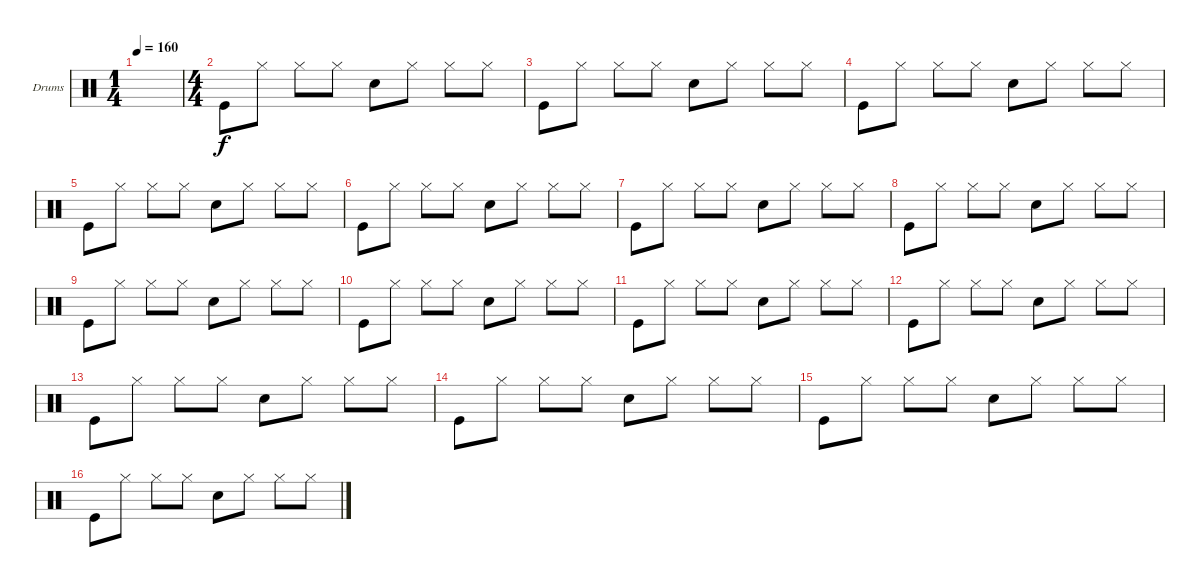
\defaultSystemsLayout 4
\bracketExtendMode nobrackets
\firstSystemTrackNameOrientation horizontal
\otherSystemsTrackNameOrientation horizontal
\track ("Drumkit" "Drums") {instrument percussion}
\staff {score}
\articulation defaults
\ts (1 4)
\tempo 160
\clef neutral
\ks c
|
\ts (4 4)
"Kick (hit)".8 "Hi-Hat (closed)".8 "Hi-Hat (closed)".8 "Hi-Hat (closed)".8 "Snare (hit) 2".8 "Hi-Hat (closed)".8 "Hi-Hat (closed)".8 "Hi-Hat (closed)".8 |
"Kick (hit)".8 "Hi-Hat (closed)".8 "Hi-Hat (closed)".8 "Hi-Hat (closed)".8 "Snare (hit) 2".8 "Hi-Hat (closed)".8 "Hi-Hat (closed)".8 "Hi-Hat (closed)".8 |
"Kick (hit)".8 "Hi-Hat (closed)".8 "Hi-Hat (closed)".8 "Hi-Hat (closed)".8 "Snare (hit) 2".8 "Hi-Hat (closed)".8 "Hi-Hat (closed)".8 "Hi-Hat (closed)".8 |
"Kick (hit)".8 "Hi-Hat (closed)".8 "Hi-Hat (closed)".8 "Hi-Hat (closed)".8 "Snare (hit) 2".8 "Hi-Hat (closed)".8 "Hi-Hat (closed)".8 "Hi-Hat (closed)".8 |
"Kick (hit)".8 "Hi-Hat (closed)".8 "Hi-Hat (closed)".8 "Hi-Hat (closed)".8 "Snare (hit) 2".8 "Hi-Hat (closed)".8 "Hi-Hat (closed)".8 "Hi-Hat (closed)".8 |
"Kick (hit)".8 "Hi-Hat (closed)".8 "Hi-Hat (closed)".8 "Hi-Hat (closed)".8 "Snare (hit) 2".8 "Hi-Hat (closed)".8 "Hi-Hat (closed)".8 "Hi-Hat (closed)".8 |
"Kick (hit)".8 "Hi-Hat (closed)".8 "Hi-Hat (closed)".8 "Hi-Hat (closed)".8 "Snare (hit) 2".8 "Hi-Hat (closed)".8 "Hi-Hat (closed)".8 "Hi-Hat (closed)".8 |
"Kick (hit)".8 "Hi-Hat (closed)".8 "Hi-Hat (closed)".8 "Hi-Hat (closed)".8 "Snare (hit) 2".8 "Hi-Hat (closed)".8 "Hi-Hat (closed)".8 "Hi-Hat (closed)".8 |
"Kick (hit)".8 "Hi-Hat (closed)".8 "Hi-Hat (closed)".8 "Hi-Hat (closed)".8 "Snare (hit) 2".8 "Hi-Hat (closed)".8 "Hi-Hat (closed)".8 "Hi-Hat (closed)".8 |
"Kick (hit)".8 "Hi-Hat (closed)".8 "Hi-Hat (closed)".8 "Hi-Hat (closed)".8 "Snare (hit) 2".8 "Hi-Hat (closed)".8 "Hi-Hat (closed)".8 "Hi-Hat (closed)".8 |
"Kick (hit)".8 "Hi-Hat (closed)".8 "Hi-Hat (closed)".8 "Hi-Hat (closed)".8 "Snare (hit) 2".8 "Hi-Hat (closed)".8 "Hi-Hat (closed)".8 "Hi-Hat (closed)".8 |
"Kick (hit)".8 "Hi-Hat (closed)".8 "Hi-Hat (closed)".8 "Hi-Hat (closed)".8 "Snare (hit) 2".8 "Hi-Hat (closed)".8 "Hi-Hat (closed)".8 "Hi-Hat (closed)".8 |
"Kick (hit)".8 "Hi-Hat (closed)".8 "Hi-Hat (closed)".8 "Hi-Hat (closed)".8 "Snare (hit) 2".8 "Hi-Hat (closed)".8 "Hi-Hat (closed)".8 "Hi-Hat (closed)".8 |
"Kick (hit)".8 "Hi-Hat (closed)".8 "Hi-Hat (closed)".8 "Hi-Hat (closed)".8 "Snare (hit) 2".8 "Hi-Hat (closed)".8 "Hi-Hat (closed)".8 "Hi-Hat (closed)".8 |
"Kick (hit)".8 "Hi-Hat (closed)".8 "Hi-Hat (closed)".8 "Hi-Hat (closed)".8 "Snare (hit) 2".8 "Hi-Hat (closed)".8 "Hi-Hat (closed)".8 "Hi-Hat (closed)".8
